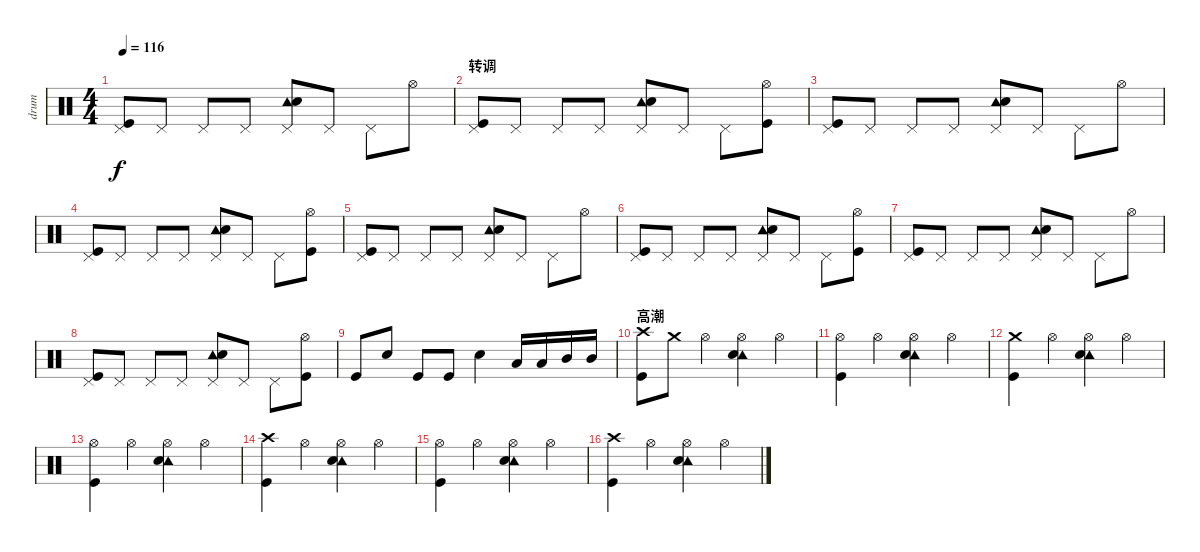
\track ("drum" "drum") {instrument percussion}
\staff {score}
\articulation defaults
\ts (4 4)
\tempo 116
\clef neutral
\ks c
("Pedal Hi-Hat (hit)" "Kick (hit)").8{dy f} "Pedal Hi-Hat (hit)".8 "Pedal Hi-Hat (hit)".8 "Pedal Hi-Hat (hit)".8 ("Pedal Hi-Hat (hit)" "Tambourine (hit)" "Snare (hit) 2").8 "Pedal Hi-Hat (hit)".8 "Pedal Hi-Hat (hit)".8 "Hi-Hat (open)".8 |
\section ("" "转调")
("Pedal Hi-Hat (hit)" "Kick (hit)").8 "Pedal Hi-Hat (hit)".8 "Pedal Hi-Hat (hit)".8 "Pedal Hi-Hat (hit)".8 ("Pedal Hi-Hat (hit)" "Tambourine (hit)" "Snare (hit) 2").8 "Pedal Hi-Hat (hit)".8 "Pedal Hi-Hat (hit)".8 ("Hi-Hat (open)" "Kick (hit)").8 |
("Pedal Hi-Hat (hit)" "Kick (hit)").8 "Pedal Hi-Hat (hit)".8 "Pedal Hi-Hat (hit)".8 "Pedal Hi-Hat (hit)".8 ("Pedal Hi-Hat (hit)" "Tambourine (hit)" "Snare (hit) 2").8 "Pedal Hi-Hat (hit)".8 "Pedal Hi-Hat (hit)".8 "Hi-Hat (open)".8 |
("Pedal Hi-Hat (hit)" "Kick (hit)").8 "Pedal Hi-Hat (hit)".8 "Pedal Hi-Hat (hit)".8 "Pedal Hi-Hat (hit)".8 ("Pedal Hi-Hat (hit)" "Tambourine (hit)" "Snare (hit) 2").8 "Pedal Hi-Hat (hit)".8 "Pedal Hi-Hat (hit)".8 ("Hi-Hat (open)" "Kick (hit)").8 |
("Pedal Hi-Hat (hit)" "Kick (hit)").8 "Pedal Hi-Hat (hit)".8 "Pedal Hi-Hat (hit)".8 "Pedal Hi-Hat (hit)".8 ("Pedal Hi-Hat (hit)" "Tambourine (hit)" "Snare (hit) 2").8 "Pedal Hi-Hat (hit)".8 "Pedal Hi-Hat (hit)".8 "Hi-Hat (open)".8 |
("Pedal Hi-Hat (hit)" "Kick (hit)").8 "Pedal Hi-Hat (hit)".8 "Pedal Hi-Hat (hit)".8 "Pedal Hi-Hat (hit)".8 ("Pedal Hi-Hat (hit)" "Tambourine (hit)" "Snare (hit) 2").8 "Pedal Hi-Hat (hit)".8 "Pedal Hi-Hat (hit)".8 ("Hi-Hat (open)" "Kick (hit)").8 |
("Pedal Hi-Hat (hit)" "Kick (hit)").8 "Pedal Hi-Hat (hit)".8 "Pedal Hi-Hat (hit)".8 "Pedal Hi-Hat (hit)".8 ("Pedal Hi-Hat (hit)" "Tambourine (hit)" "Snare (hit) 2").8 "Pedal Hi-Hat (hit)".8 "Pedal Hi-Hat (hit)".8 "Hi-Hat (open)".8 |
("Pedal Hi-Hat (hit)" "Kick (hit)").8 "Pedal Hi-Hat (hit)".8 "Pedal Hi-Hat (hit)".8 "Pedal Hi-Hat (hit)".8 ("Pedal Hi-Hat (hit)" "Tambourine (hit)" "Snare (hit) 2").8 "Pedal Hi-Hat (hit)".8 "Pedal Hi-Hat (hit)".8 ("Hi-Hat (open)" "Kick (hit)").8 |
"Kick (hit)".8 "Snare (hit) 2".8 "Kick (hit)".8 "Kick (hit)".8 "Snare (hit) 2".4 "Low Tom (hit)".16 "Low Tom (hit)".16 "Mid Tom (hit)".16 "Mid Tom (hit)".16 |
\section ("" "高潮")
("Crash high (hit)" "Kick (hit)").8 "Crash medium (hit)".8 "Hi-Hat (open)".4 ("Hi-Hat (open)" "Tambourine (hit)" "Snare (hit) 2").4 "Hi-Hat (open)".4 |
("Hi-Hat (open)" "Kick (hit)").4 "Hi-Hat (open)".4 ("Hi-Hat (open)" "Tambourine (hit)" "Snare (hit) 2").4 "Hi-Hat (open)".4 |
("Crash medium (hit)" "Kick (hit)").4 "Hi-Hat (open)".4 ("Hi-Hat (open)" "Tambourine (hit)" "Snare (hit) 2").4 "Hi-Hat (open)".4 |
("Hi-Hat (open)" "Kick (hit)").4 "Hi-Hat (open)".4 ("Hi-Hat (open)" "Tambourine (hit)" "Snare (hit) 2").4 "Hi-Hat (open)".4 |
("Crash high (hit)" "Kick (hit)").4 "Hi-Hat (open)".4 ("Hi-Hat (open)" "Tambourine (hit)" "Snare (hit) 2").4 "Hi-Hat (open)".4 |
("Hi-Hat (open)" "Kick (hit)").4 "Hi-Hat (open)".4 ("Hi-Hat (open)" "Tambourine (hit)" "Snare (hit) 2").4 "Hi-Hat (open)".4 |
("Crash high (hit)" "Kick (hit)").4 "Hi-Hat (open)".4 ("Hi-Hat (open)" "Tambourine (hit)" "Snare (hit) 2").4 "Hi-Hat (open)".4
